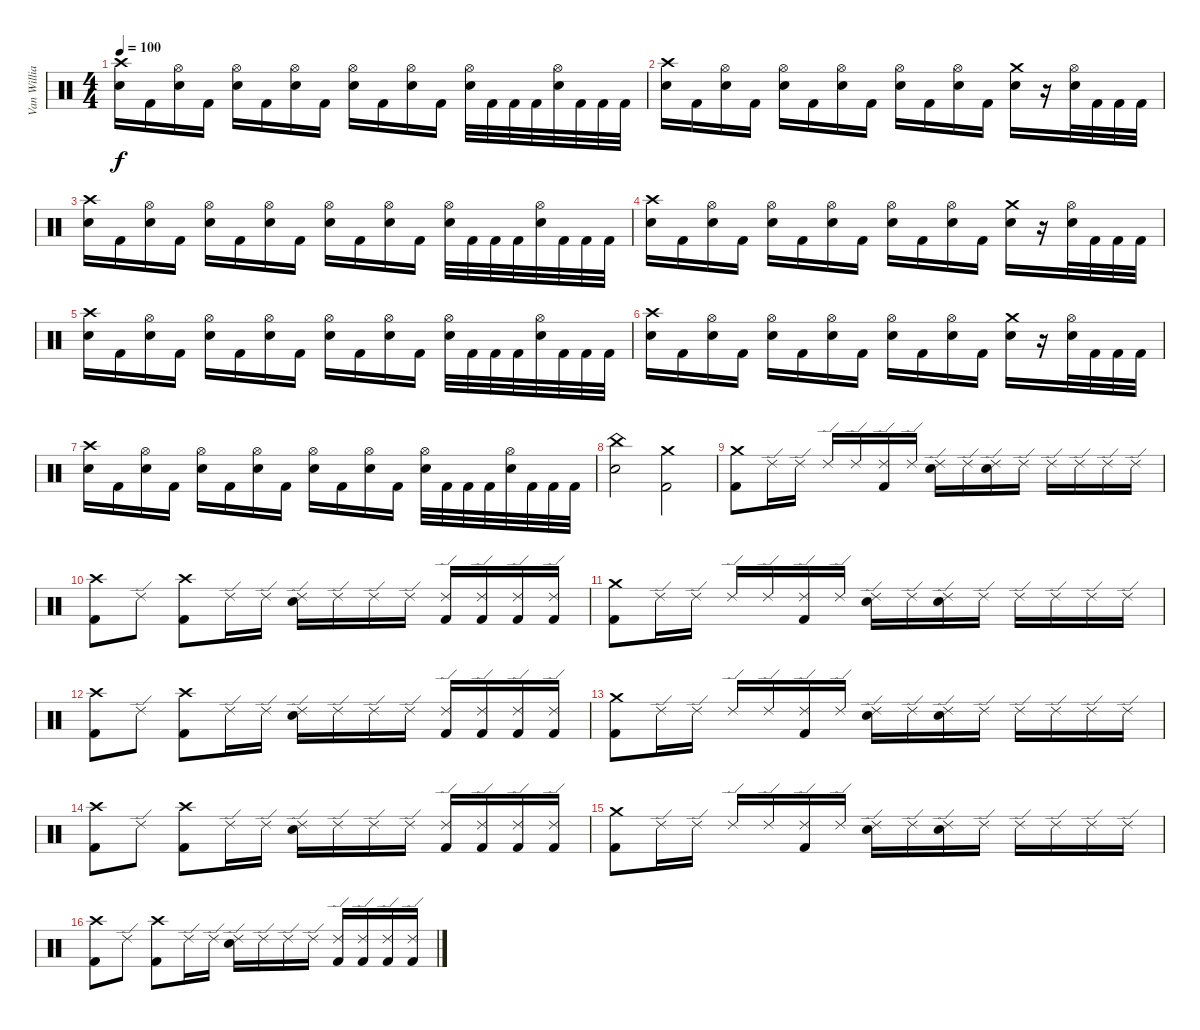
\track ("Van Williams" "Van Willia") {instrument percussion}
\staff {score}
\articulation defaults
\ts (4 4)
\tempo 100
\clef neutral
\ks c
("Crash high (hit)" "Electric Snare (hit)").16{dy f} "Kick (hit) 2".16 ("Hi-Hat (open)" "Electric Snare (hit)").16 "Kick (hit) 2".16 ("Hi-Hat (open)" "Electric Snare (hit)").16 "Kick (hit) 2".16 ("Hi-Hat (open)" "Electric Snare (hit)").16 "Kick (hit) 2".16 ("Hi-Hat (open)" "Electric Snare (hit)").16 "Kick (hit) 2".16 ("Hi-Hat (open)" "Electric Snare (hit)").16 "Kick (hit) 2".16 ("Hi-Hat (open)" "Electric Snare (hit)").32 "Kick (hit) 2".32 "Kick (hit) 2".32 "Kick (hit) 2".32 ("Hi-Hat (open)" "Electric Snare (hit)").32 "Kick (hit) 2".32 "Kick (hit) 2".32 "Kick (hit) 2".32 |
("Crash high (hit)" "Electric Snare (hit)").16 "Kick (hit) 2".16 ("Hi-Hat (open)" "Electric Snare (hit)").16 "Kick (hit) 2".16 ("Hi-Hat (open)" "Electric Snare (hit)").16 "Kick (hit) 2".16 ("Hi-Hat (open)" "Electric Snare (hit)").16 "Kick (hit) 2".16 ("Hi-Hat (open)" "Electric Snare (hit)").16 "Kick (hit) 2".16 ("Hi-Hat (open)" "Electric Snare (hit)").16 "Kick (hit) 2".16 ("Crash medium (hit)" "Electric Snare (hit)").16 r.16 ("Hi-Hat (open)" "Electric Snare (hit)").32 "Kick (hit) 2".32 "Kick (hit) 2".32 "Kick (hit) 2".32 |
("Crash high (hit)" "Electric Snare (hit)").16 "Kick (hit) 2".16 ("Hi-Hat (open)" "Electric Snare (hit)").16 "Kick (hit) 2".16 ("Hi-Hat (open)" "Electric Snare (hit)").16 "Kick (hit) 2".16 ("Hi-Hat (open)" "Electric Snare (hit)").16 "Kick (hit) 2".16 ("Hi-Hat (open)" "Electric Snare (hit)").16 "Kick (hit) 2".16 ("Hi-Hat (open)" "Electric Snare (hit)").16 "Kick (hit) 2".16 ("Hi-Hat (open)" "Electric Snare (hit)").32 "Kick (hit) 2".32 "Kick (hit) 2".32 "Kick (hit) 2".32 ("Hi-Hat (open)" "Electric Snare (hit)").32 "Kick (hit) 2".32 "Kick (hit) 2".32 "Kick (hit) 2".32 |
("Crash high (hit)" "Electric Snare (hit)").16 "Kick (hit) 2".16 ("Hi-Hat (open)" "Electric Snare (hit)").16 "Kick (hit) 2".16 ("Hi-Hat (open)" "Electric Snare (hit)").16 "Kick (hit) 2".16 ("Hi-Hat (open)" "Electric Snare (hit)").16 "Kick (hit) 2".16 ("Hi-Hat (open)" "Electric Snare (hit)").16 "Kick (hit) 2".16 ("Hi-Hat (open)" "Electric Snare (hit)").16 "Kick (hit) 2".16 ("Crash medium (hit)" "Electric Snare (hit)").16 r.16 ("Hi-Hat (open)" "Electric Snare (hit)").32 "Kick (hit) 2".32 "Kick (hit) 2".32 "Kick (hit) 2".32 |
("Crash high (hit)" "Electric Snare (hit)").16 "Kick (hit) 2".16 ("Hi-Hat (open)" "Electric Snare (hit)").16 "Kick (hit) 2".16 ("Hi-Hat (open)" "Electric Snare (hit)").16 "Kick (hit) 2".16 ("Hi-Hat (open)" "Electric Snare (hit)").16 "Kick (hit) 2".16 ("Hi-Hat (open)" "Electric Snare (hit)").16 "Kick (hit) 2".16 ("Hi-Hat (open)" "Electric Snare (hit)").16 "Kick (hit) 2".16 ("Hi-Hat (open)" "Electric Snare (hit)").32 "Kick (hit) 2".32 "Kick (hit) 2".32 "Kick (hit) 2".32 ("Hi-Hat (open)" "Electric Snare (hit)").32 "Kick (hit) 2".32 "Kick (hit) 2".32 "Kick (hit) 2".32 |
("Crash high (hit)" "Electric Snare (hit)").16 "Kick (hit) 2".16 ("Hi-Hat (open)" "Electric Snare (hit)").16 "Kick (hit) 2".16 ("Hi-Hat (open)" "Electric Snare (hit)").16 "Kick (hit) 2".16 ("Hi-Hat (open)" "Electric Snare (hit)").16 "Kick (hit) 2".16 ("Hi-Hat (open)" "Electric Snare (hit)").16 "Kick (hit) 2".16 ("Hi-Hat (open)" "Electric Snare (hit)").16 "Kick (hit) 2".16 ("Crash medium (hit)" "Electric Snare (hit)").16 r.16 ("Hi-Hat (open)" "Electric Snare (hit)").32 "Kick (hit) 2".32 "Kick (hit) 2".32 "Kick (hit) 2".32 |
("Crash high (hit)" "Electric Snare (hit)").16 "Kick (hit) 2".16 ("Hi-Hat (open)" "Electric Snare (hit)").16 "Kick (hit) 2".16 ("Hi-Hat (open)" "Electric Snare (hit)").16 "Kick (hit) 2".16 ("Hi-Hat (open)" "Electric Snare (hit)").16 "Kick (hit) 2".16 ("Hi-Hat (open)" "Electric Snare (hit)").16 "Kick (hit) 2".16 ("Hi-Hat (open)" "Electric Snare (hit)").16 "Kick (hit) 2".16 ("Hi-Hat (open)" "Electric Snare (hit)").32 "Kick (hit) 2".32 "Kick (hit) 2".32 "Kick (hit) 2".32 ("Hi-Hat (open)" "Electric Snare (hit)").32 "Kick (hit) 2".32 "Kick (hit) 2".32 "Kick (hit) 2".32 |
("China (hit)" "Electric Snare (hit)").2 ("Crash medium (hit)" "Kick (hit) 2").2 |
("Crash medium (hit)" "Kick (hit) 2").8 "Ride (edge) 2".16 "Ride (edge) 2".16 "Ride (edge) 2".16 "Ride (edge) 2".16 ("Ride (edge) 2" "Kick (hit) 2").16 "Ride (edge) 2".16 ("Ride (edge) 2" "Electric Snare (hit)").16 "Ride (edge) 2".16 ("Ride (edge) 2" "Electric Snare (hit)").16 "Ride (edge) 2".16 "Ride (edge) 2".16 "Ride (edge) 2".16 "Ride (edge) 2".16 "Ride (edge) 2".16 |
("Crash high (hit)" "Kick (hit) 2").8 "Ride (edge) 2".8 ("Crash high (hit)" "Kick (hit) 2").8 "Ride (edge) 2".16 "Ride (edge) 2".16 ("Ride (edge) 2" "Electric Snare (hit)").16 "Ride (edge) 2".16 "Ride (edge) 2".16 "Ride (edge) 2".16 ("Ride (edge) 2" "Kick (hit) 2").16 ("Ride (edge) 2" "Kick (hit) 2").16 ("Ride (edge) 2" "Kick (hit) 2").16 ("Ride (edge) 2" "Kick (hit) 2").16 |
("Crash medium (hit)" "Kick (hit) 2").8 "Ride (edge) 2".16 "Ride (edge) 2".16 "Ride (edge) 2".16 "Ride (edge) 2".16 ("Ride (edge) 2" "Kick (hit) 2").16 "Ride (edge) 2".16 ("Ride (edge) 2" "Electric Snare (hit)").16 "Ride (edge) 2".16 ("Ride (edge) 2" "Electric Snare (hit)").16 "Ride (edge) 2".16 "Ride (edge) 2".16 "Ride (edge) 2".16 "Ride (edge) 2".16 "Ride (edge) 2".16 |
("Crash high (hit)" "Kick (hit) 2").8 "Ride (edge) 2".8 ("Crash high (hit)" "Kick (hit) 2").8 "Ride (edge) 2".16 "Ride (edge) 2".16 ("Ride (edge) 2" "Electric Snare (hit)").16 "Ride (edge) 2".16 "Ride (edge) 2".16 "Ride (edge) 2".16 ("Ride (edge) 2" "Kick (hit) 2").16 ("Ride (edge) 2" "Kick (hit) 2").16 ("Ride (edge) 2" "Kick (hit) 2").16 ("Ride (edge) 2" "Kick (hit) 2").16 |
("Crash medium (hit)" "Kick (hit) 2").8 "Ride (edge) 2".16 "Ride (edge) 2".16 "Ride (edge) 2".16 "Ride (edge) 2".16 ("Ride (edge) 2" "Kick (hit) 2").16 "Ride (edge) 2".16 ("Ride (edge) 2" "Electric Snare (hit)").16 "Ride (edge) 2".16 ("Ride (edge) 2" "Electric Snare (hit)").16 "Ride (edge) 2".16 "Ride (edge) 2".16 "Ride (edge) 2".16 "Ride (edge) 2".16 "Ride (edge) 2".16 |
("Crash high (hit)" "Kick (hit) 2").8 "Ride (edge) 2".8 ("Crash high (hit)" "Kick (hit) 2").8 "Ride (edge) 2".16 "Ride (edge) 2".16 ("Ride (edge) 2" "Electric Snare (hit)").16 "Ride (edge) 2".16 "Ride (edge) 2".16 "Ride (edge) 2".16 ("Ride (edge) 2" "Kick (hit) 2").16 ("Ride (edge) 2" "Kick (hit) 2").16 ("Ride (edge) 2" "Kick (hit) 2").16 ("Ride (edge) 2" "Kick (hit) 2").16 |
("Crash medium (hit)" "Kick (hit) 2").8 "Ride (edge) 2".16 "Ride (edge) 2".16 "Ride (edge) 2".16 "Ride (edge) 2".16 ("Ride (edge) 2" "Kick (hit) 2").16 "Ride (edge) 2".16 ("Ride (edge) 2" "Electric Snare (hit)").16 "Ride (edge) 2".16 ("Ride (edge) 2" "Electric Snare (hit)").16 "Ride (edge) 2".16 "Ride (edge) 2".16 "Ride (edge) 2".16 "Ride (edge) 2".16 "Ride (edge) 2".16 |
("Crash high (hit)" "Kick (hit) 2").8 "Ride (edge) 2".8 ("Crash high (hit)" "Kick (hit) 2").8 "Ride (edge) 2".16 "Ride (edge) 2".16 ("Ride (edge) 2" "Electric Snare (hit)").16 "Ride (edge) 2".16 "Ride (edge) 2".16 "Ride (edge) 2".16 ("Ride (edge) 2" "Kick (hit) 2").16 ("Ride (edge) 2" "Kick (hit) 2").16 ("Ride (edge) 2" "Kick (hit) 2").16 ("Ride (edge) 2" "Kick (hit) 2").16
